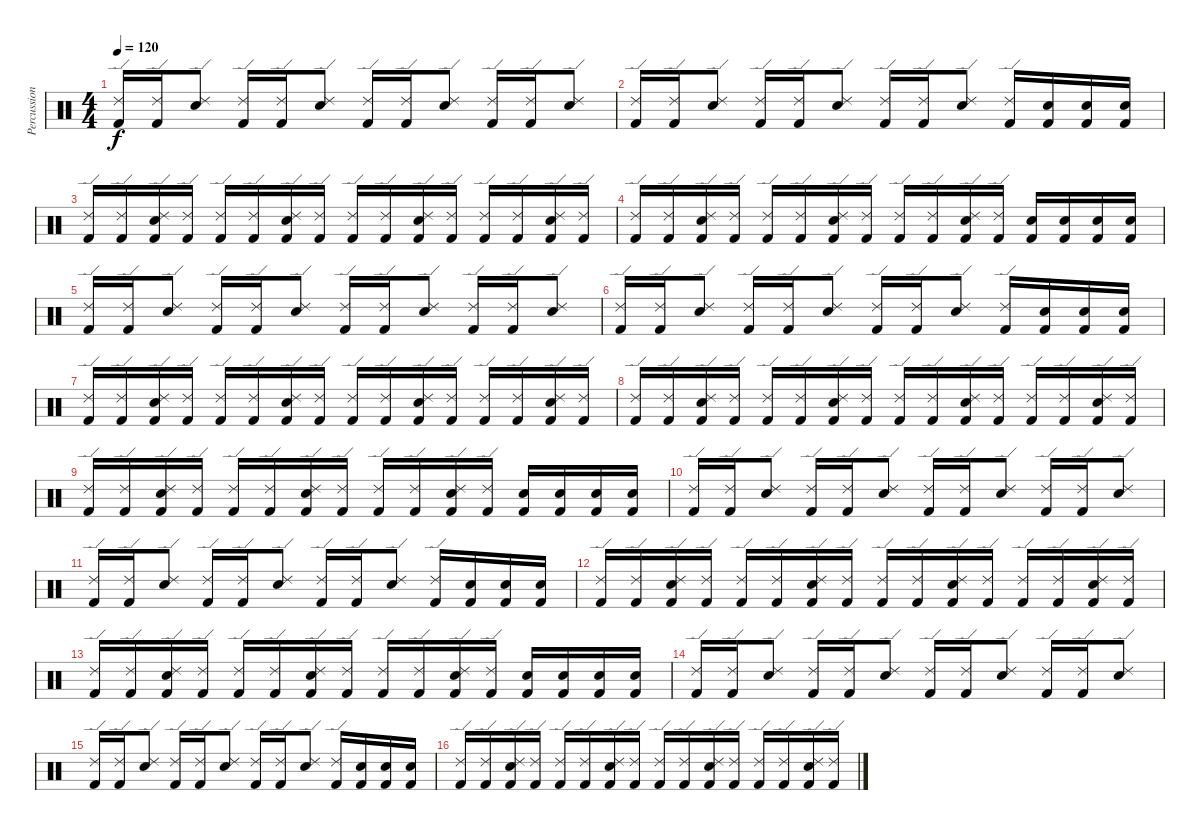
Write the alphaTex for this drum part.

\track ("Percussion" "Percussion") {instrument percussion}
\staff {score}
\articulation defaults
\ts (4 4)
\tempo 120
\clef neutral
\ks c
("Kick (hit) 2" "Ride (edge) 2").16{dy f} ("Kick (hit) 2" "Ride (edge) 2").16 ("Snare (hit) 2" "Ride (edge) 2").8 ("Kick (hit) 2" "Ride (edge) 2").16 ("Kick (hit) 2" "Ride (edge) 2").16 ("Snare (hit) 2" "Ride (edge) 2").8 ("Kick (hit) 2" "Ride (edge) 2").16 ("Kick (hit) 2" "Ride (edge) 2").16 ("Snare (hit) 2" "Ride (edge) 2").8 ("Kick (hit) 2" "Ride (edge) 2").16 ("Kick (hit) 2" "Ride (edge) 2").16 ("Snare (hit) 2" "Ride (edge) 2").8 |
("Kick (hit) 2" "Ride (edge) 2").16 ("Kick (hit) 2" "Ride (edge) 2").16 ("Snare (hit) 2" "Ride (edge) 2").8 ("Kick (hit) 2" "Ride (edge) 2").16 ("Kick (hit) 2" "Ride (edge) 2").16 ("Snare (hit) 2" "Ride (edge) 2").8 ("Kick (hit) 2" "Ride (edge) 2").16 ("Kick (hit) 2" "Ride (edge) 2").16 ("Snare (hit) 2" "Ride (edge) 2").8 ("Kick (hit) 2" "Ride (edge) 2").16 ("Kick (hit) 2" "Snare (hit) 2").16 ("Kick (hit) 2" "Snare (hit) 2").16 ("Kick (hit) 2" "Snare (hit) 2").16 |
("Kick (hit) 2" "Ride (edge) 2").16 ("Kick (hit) 2" "Ride (edge) 2").16 ("Kick (hit) 2" "Snare (hit) 2" "Ride (edge) 2").16 ("Kick (hit) 2" "Ride (edge) 2").16 ("Kick (hit) 2" "Ride (edge) 2").16 ("Kick (hit) 2" "Ride (edge) 2").16 ("Kick (hit) 2" "Snare (hit) 2" "Ride (edge) 2").16 ("Kick (hit) 2" "Ride (edge) 2").16 ("Kick (hit) 2" "Ride (edge) 2").16 ("Kick (hit) 2" "Ride (edge) 2").16 ("Kick (hit) 2" "Snare (hit) 2" "Ride (edge) 2").16 ("Kick (hit) 2" "Ride (edge) 2").16 ("Kick (hit) 2" "Ride (edge) 2").16 ("Kick (hit) 2" "Ride (edge) 2").16 ("Kick (hit) 2" "Snare (hit) 2" "Ride (edge) 2").16 ("Kick (hit) 2" "Ride (edge) 2").16 |
("Kick (hit) 2" "Ride (edge) 2").16 ("Kick (hit) 2" "Ride (edge) 2").16 ("Kick (hit) 2" "Snare (hit) 2" "Ride (edge) 2").16 ("Kick (hit) 2" "Ride (edge) 2").16 ("Kick (hit) 2" "Ride (edge) 2").16 ("Kick (hit) 2" "Ride (edge) 2").16 ("Kick (hit) 2" "Snare (hit) 2" "Ride (edge) 2").16 ("Kick (hit) 2" "Ride (edge) 2").16 ("Kick (hit) 2" "Ride (edge) 2").16 ("Kick (hit) 2" "Ride (edge) 2").16 ("Kick (hit) 2" "Snare (hit) 2" "Ride (edge) 2").16 ("Kick (hit) 2" "Ride (edge) 2").16 ("Kick (hit) 2" "Snare (hit) 2").16 ("Kick (hit) 2" "Snare (hit) 2").16 ("Kick (hit) 2" "Snare (hit) 2").16 ("Kick (hit) 2" "Snare (hit) 2").16 |
("Kick (hit) 2" "Ride (edge) 2").16 ("Kick (hit) 2" "Ride (edge) 2").16 ("Snare (hit) 2" "Ride (edge) 2").8 ("Kick (hit) 2" "Ride (edge) 2").16 ("Kick (hit) 2" "Ride (edge) 2").16 ("Snare (hit) 2" "Ride (edge) 2").8 ("Kick (hit) 2" "Ride (edge) 2").16 ("Kick (hit) 2" "Ride (edge) 2").16 ("Snare (hit) 2" "Ride (edge) 2").8 ("Kick (hit) 2" "Ride (edge) 2").16 ("Kick (hit) 2" "Ride (edge) 2").16 ("Snare (hit) 2" "Ride (edge) 2").8 |
("Kick (hit) 2" "Ride (edge) 2").16 ("Kick (hit) 2" "Ride (edge) 2").16 ("Snare (hit) 2" "Ride (edge) 2").8 ("Kick (hit) 2" "Ride (edge) 2").16 ("Kick (hit) 2" "Ride (edge) 2").16 ("Snare (hit) 2" "Ride (edge) 2").8 ("Kick (hit) 2" "Ride (edge) 2").16 ("Kick (hit) 2" "Ride (edge) 2").16 ("Snare (hit) 2" "Ride (edge) 2").8 ("Kick (hit) 2" "Ride (edge) 2").16 ("Kick (hit) 2" "Snare (hit) 2").16 ("Kick (hit) 2" "Snare (hit) 2").16 ("Kick (hit) 2" "Snare (hit) 2").16 |
("Kick (hit) 2" "Ride (edge) 2").16 ("Kick (hit) 2" "Ride (edge) 2").16 ("Kick (hit) 2" "Snare (hit) 2" "Ride (edge) 2").16 ("Kick (hit) 2" "Ride (edge) 2").16 ("Kick (hit) 2" "Ride (edge) 2").16 ("Kick (hit) 2" "Ride (edge) 2").16 ("Kick (hit) 2" "Snare (hit) 2" "Ride (edge) 2").16 ("Kick (hit) 2" "Ride (edge) 2").16 ("Kick (hit) 2" "Ride (edge) 2").16 ("Kick (hit) 2" "Ride (edge) 2").16 ("Kick (hit) 2" "Snare (hit) 2" "Ride (edge) 2").16 ("Kick (hit) 2" "Ride (edge) 2").16 ("Kick (hit) 2" "Ride (edge) 2").16 ("Kick (hit) 2" "Ride (edge) 2").16 ("Kick (hit) 2" "Snare (hit) 2" "Ride (edge) 2").16 ("Kick (hit) 2" "Ride (edge) 2").16 |
("Kick (hit) 2" "Ride (edge) 2").16 ("Kick (hit) 2" "Ride (edge) 2").16 ("Kick (hit) 2" "Snare (hit) 2" "Ride (edge) 2").16 ("Kick (hit) 2" "Ride (edge) 2").16 ("Kick (hit) 2" "Ride (edge) 2").16 ("Kick (hit) 2" "Ride (edge) 2").16 ("Kick (hit) 2" "Snare (hit) 2" "Ride (edge) 2").16 ("Kick (hit) 2" "Ride (edge) 2").16 ("Kick (hit) 2" "Ride (edge) 2").16 ("Kick (hit) 2" "Ride (edge) 2").16 ("Kick (hit) 2" "Snare (hit) 2" "Ride (edge) 2").16 ("Kick (hit) 2" "Ride (edge) 2").16 ("Kick (hit) 2" "Ride (edge) 2").16 ("Kick (hit) 2" "Ride (edge) 2").16 ("Kick (hit) 2" "Snare (hit) 2" "Ride (edge) 2").16 ("Kick (hit) 2" "Ride (edge) 2").16 |
("Kick (hit) 2" "Ride (edge) 2").16 ("Kick (hit) 2" "Ride (edge) 2").16 ("Kick (hit) 2" "Snare (hit) 2" "Ride (edge) 2").16 ("Kick (hit) 2" "Ride (edge) 2").16 ("Kick (hit) 2" "Ride (edge) 2").16 ("Kick (hit) 2" "Ride (edge) 2").16 ("Kick (hit) 2" "Snare (hit) 2" "Ride (edge) 2").16 ("Kick (hit) 2" "Ride (edge) 2").16 ("Kick (hit) 2" "Ride (edge) 2").16 ("Kick (hit) 2" "Ride (edge) 2").16 ("Kick (hit) 2" "Snare (hit) 2" "Ride (edge) 2").16 ("Kick (hit) 2" "Ride (edge) 2").16 ("Kick (hit) 2" "Snare (hit) 2").16 ("Kick (hit) 2" "Snare (hit) 2").16 ("Kick (hit) 2" "Snare (hit) 2").16 ("Kick (hit) 2" "Snare (hit) 2").16 |
("Kick (hit) 2" "Ride (edge) 2").16 ("Kick (hit) 2" "Ride (edge) 2").16 ("Snare (hit) 2" "Ride (edge) 2").8 ("Kick (hit) 2" "Ride (edge) 2").16 ("Kick (hit) 2" "Ride (edge) 2").16 ("Snare (hit) 2" "Ride (edge) 2").8 ("Kick (hit) 2" "Ride (edge) 2").16 ("Kick (hit) 2" "Ride (edge) 2").16 ("Snare (hit) 2" "Ride (edge) 2").8 ("Kick (hit) 2" "Ride (edge) 2").16 ("Kick (hit) 2" "Ride (edge) 2").16 ("Snare (hit) 2" "Ride (edge) 2").8 |
("Kick (hit) 2" "Ride (edge) 2").16 ("Kick (hit) 2" "Ride (edge) 2").16 ("Snare (hit) 2" "Ride (edge) 2").8 ("Kick (hit) 2" "Ride (edge) 2").16 ("Kick (hit) 2" "Ride (edge) 2").16 ("Snare (hit) 2" "Ride (edge) 2").8 ("Kick (hit) 2" "Ride (edge) 2").16 ("Kick (hit) 2" "Ride (edge) 2").16 ("Snare (hit) 2" "Ride (edge) 2").8 ("Kick (hit) 2" "Ride (edge) 2").16 ("Kick (hit) 2" "Snare (hit) 2").16 ("Kick (hit) 2" "Snare (hit) 2").16 ("Kick (hit) 2" "Snare (hit) 2").16 |
("Kick (hit) 2" "Ride (edge) 2").16 ("Kick (hit) 2" "Ride (edge) 2").16 ("Kick (hit) 2" "Snare (hit) 2" "Ride (edge) 2").16 ("Kick (hit) 2" "Ride (edge) 2").16 ("Kick (hit) 2" "Ride (edge) 2").16 ("Kick (hit) 2" "Ride (edge) 2").16 ("Kick (hit) 2" "Snare (hit) 2" "Ride (edge) 2").16 ("Kick (hit) 2" "Ride (edge) 2").16 ("Kick (hit) 2" "Ride (edge) 2").16 ("Kick (hit) 2" "Ride (edge) 2").16 ("Kick (hit) 2" "Snare (hit) 2" "Ride (edge) 2").16 ("Kick (hit) 2" "Ride (edge) 2").16 ("Kick (hit) 2" "Ride (edge) 2").16 ("Kick (hit) 2" "Ride (edge) 2").16 ("Kick (hit) 2" "Snare (hit) 2" "Ride (edge) 2").16 ("Kick (hit) 2" "Ride (edge) 2").16 |
("Kick (hit) 2" "Ride (edge) 2").16 ("Kick (hit) 2" "Ride (edge) 2").16 ("Kick (hit) 2" "Snare (hit) 2" "Ride (edge) 2").16 ("Kick (hit) 2" "Ride (edge) 2").16 ("Kick (hit) 2" "Ride (edge) 2").16 ("Kick (hit) 2" "Ride (edge) 2").16 ("Kick (hit) 2" "Snare (hit) 2" "Ride (edge) 2").16 ("Kick (hit) 2" "Ride (edge) 2").16 ("Kick (hit) 2" "Ride (edge) 2").16 ("Kick (hit) 2" "Ride (edge) 2").16 ("Kick (hit) 2" "Snare (hit) 2" "Ride (edge) 2").16 ("Kick (hit) 2" "Ride (edge) 2").16 ("Kick (hit) 2" "Snare (hit) 2").16 ("Kick (hit) 2" "Snare (hit) 2").16 ("Kick (hit) 2" "Snare (hit) 2").16 ("Kick (hit) 2" "Snare (hit) 2").16 |
("Kick (hit) 2" "Ride (edge) 2").16 ("Kick (hit) 2" "Ride (edge) 2").16 ("Snare (hit) 2" "Ride (edge) 2").8 ("Kick (hit) 2" "Ride (edge) 2").16 ("Kick (hit) 2" "Ride (edge) 2").16 ("Snare (hit) 2" "Ride (edge) 2").8 ("Kick (hit) 2" "Ride (edge) 2").16 ("Kick (hit) 2" "Ride (edge) 2").16 ("Snare (hit) 2" "Ride (edge) 2").8 ("Kick (hit) 2" "Ride (edge) 2").16 ("Kick (hit) 2" "Ride (edge) 2").16 ("Snare (hit) 2" "Ride (edge) 2").8 |
("Kick (hit) 2" "Ride (edge) 2").16 ("Kick (hit) 2" "Ride (edge) 2").16 ("Snare (hit) 2" "Ride (edge) 2").8 ("Kick (hit) 2" "Ride (edge) 2").16 ("Kick (hit) 2" "Ride (edge) 2").16 ("Snare (hit) 2" "Ride (edge) 2").8 ("Kick (hit) 2" "Ride (edge) 2").16 ("Kick (hit) 2" "Ride (edge) 2").16 ("Snare (hit) 2" "Ride (edge) 2").8 ("Kick (hit) 2" "Ride (edge) 2").16 ("Kick (hit) 2" "Snare (hit) 2").16 ("Kick (hit) 2" "Snare (hit) 2").16 ("Kick (hit) 2" "Snare (hit) 2").16 |
("Kick (hit) 2" "Ride (edge) 2").16 ("Kick (hit) 2" "Ride (edge) 2").16 ("Kick (hit) 2" "Snare (hit) 2" "Ride (edge) 2").16 ("Kick (hit) 2" "Ride (edge) 2").16 ("Kick (hit) 2" "Ride (edge) 2").16 ("Kick (hit) 2" "Ride (edge) 2").16 ("Kick (hit) 2" "Snare (hit) 2" "Ride (edge) 2").16 ("Kick (hit) 2" "Ride (edge) 2").16 ("Kick (hit) 2" "Ride (edge) 2").16 ("Kick (hit) 2" "Ride (edge) 2").16 ("Kick (hit) 2" "Snare (hit) 2" "Ride (edge) 2").16 ("Kick (hit) 2" "Ride (edge) 2").16 ("Kick (hit) 2" "Ride (edge) 2").16 ("Kick (hit) 2" "Ride (edge) 2").16 ("Kick (hit) 2" "Snare (hit) 2" "Ride (edge) 2").16 ("Kick (hit) 2" "Ride (edge) 2").16
